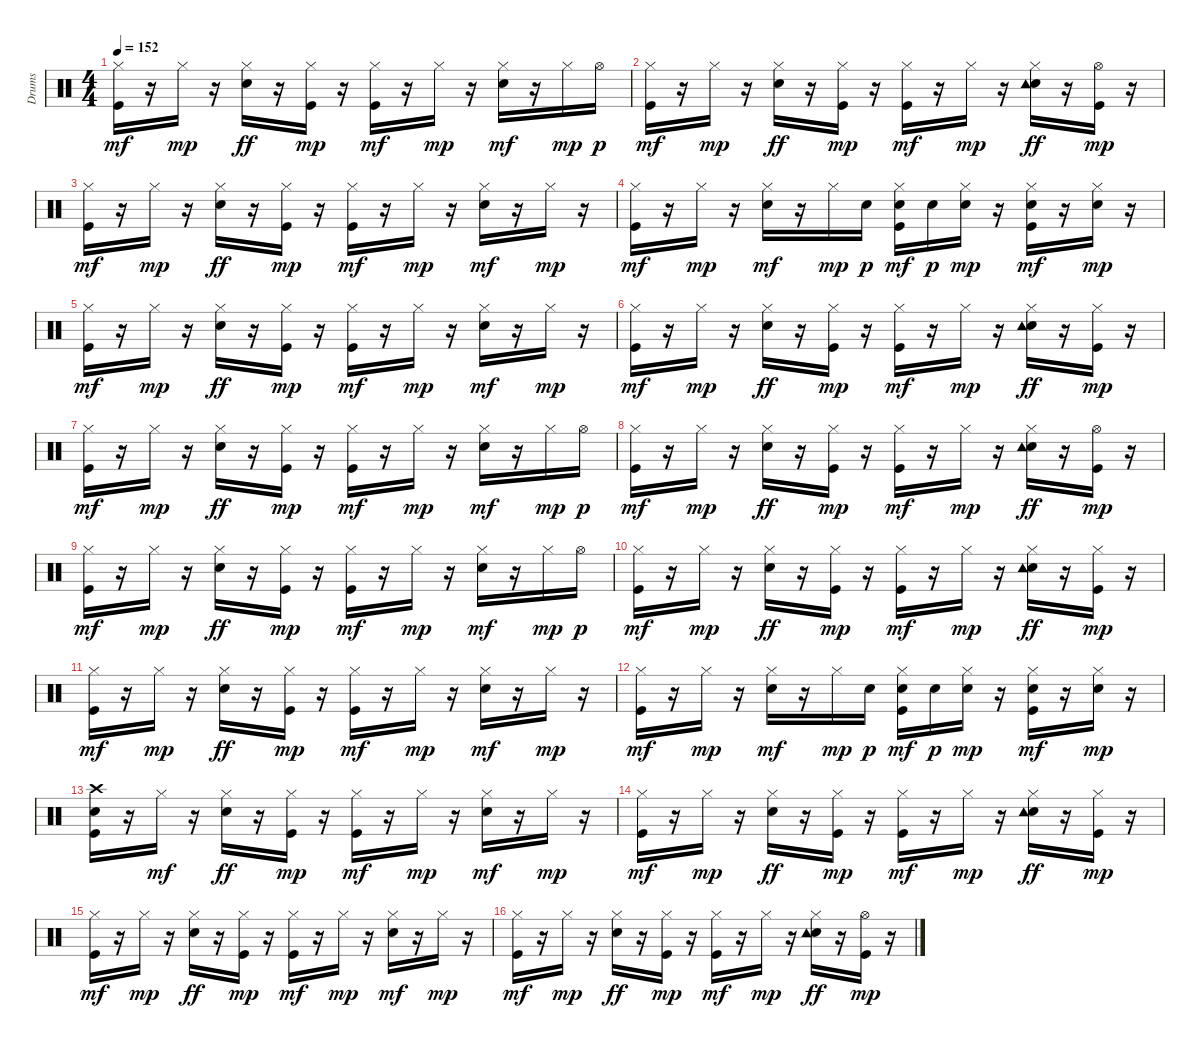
\track ("Drums   " "Drums   ") {instrument percussion}
\staff {score}
\articulation defaults
\ts (4 4)
\tempo 152
\clef neutral
\ks c
("Kick (hit)" "Hi-Hat (closed)").16{dy mf} r.16 "Hi-Hat (closed)".16{dy mp} r.16 ("Snare (hit) 2" "Hi-Hat (closed)").16{dy ff} r.16 ("Kick (hit)" "Hi-Hat (closed)").16{dy mp} r.16 ("Kick (hit)" "Hi-Hat (closed)").16{dy mf} r.16 "Hi-Hat (closed)".16{dy mp} r.16 ("Snare (hit) 2" "Hi-Hat (closed)").16{dy mf} r.16 "Hi-Hat (closed)".16{dy mp} "Hi-Hat (open)".16{dy p} |
("Kick (hit)" "Hi-Hat (closed)").16{dy mf} r.16 "Hi-Hat (closed)".16{dy mp} r.16 ("Snare (hit) 2" "Hi-Hat (closed)").16{dy ff} r.16 ("Kick (hit)" "Hi-Hat (closed)").16{dy mp} r.16 ("Kick (hit)" "Hi-Hat (closed)").16{dy mf} r.16 "Hi-Hat (closed)".16{dy mp} r.16 ("Snare (hit) 2" "Hi-Hat (closed)" "Tambourine (hit)").16{dy ff} r.16 ("Kick (hit)" "Hi-Hat (open)").16{dy mp} r.16 |
("Kick (hit)" "Hi-Hat (closed)").16{dy mf} r.16 "Hi-Hat (closed)".16{dy mp} r.16 ("Snare (hit) 2" "Hi-Hat (closed)").16{dy ff} r.16 ("Kick (hit)" "Hi-Hat (closed)").16{dy mp} r.16 ("Kick (hit)" "Hi-Hat (closed)").16{dy mf} r.16 "Hi-Hat (closed)".16{dy mp} r.16 ("Snare (hit) 2" "Hi-Hat (closed)").16{dy mf} r.16 "Hi-Hat (closed)".16{dy mp} r.16 |
("Kick (hit)" "Hi-Hat (closed)").16{dy mf} r.16 "Hi-Hat (closed)".16{dy mp} r.16 ("Snare (hit) 2" "Hi-Hat (closed)").16{dy mf} r.16 "Hi-Hat (closed)".16{dy mp} "Snare (hit) 2".16{dy p} ("Kick (hit)" "Snare (hit) 2" "Hi-Hat (closed)").16{dy mf} "Snare (hit) 2".16{dy p} ("Snare (hit) 2" "Hi-Hat (closed)").16{dy mp} r.16 ("Kick (hit)" "Snare (hit) 2" "Hi-Hat (closed)").16{dy mf} r.16 ("Snare (hit) 2" "Hi-Hat (closed)").16{dy mp} r.16 |
("Kick (hit)" "Hi-Hat (closed)").16{dy mf} r.16 "Hi-Hat (closed)".16{dy mp} r.16 ("Snare (hit) 2" "Hi-Hat (closed)").16{dy ff} r.16 ("Kick (hit)" "Hi-Hat (closed)").16{dy mp} r.16 ("Kick (hit)" "Hi-Hat (closed)").16{dy mf} r.16 "Hi-Hat (closed)".16{dy mp} r.16 ("Snare (hit) 2" "Hi-Hat (closed)").16{dy mf} r.16 "Hi-Hat (closed)".16{dy mp} r.16 |
("Kick (hit)" "Hi-Hat (closed)").16{dy mf} r.16 "Hi-Hat (closed)".16{dy mp} r.16 ("Snare (hit) 2" "Hi-Hat (closed)").16{dy ff} r.16 ("Kick (hit)" "Hi-Hat (closed)").16{dy mp} r.16 ("Kick (hit)" "Hi-Hat (closed)").16{dy mf} r.16 "Hi-Hat (closed)".16{dy mp} r.16 ("Snare (hit) 2" "Hi-Hat (closed)" "Tambourine (hit)").16{dy ff} r.16 ("Kick (hit)" "Hi-Hat (closed)").16{dy mp} r.16 |
("Kick (hit)" "Hi-Hat (closed)").16{dy mf} r.16 "Hi-Hat (closed)".16{dy mp} r.16 ("Snare (hit) 2" "Hi-Hat (closed)").16{dy ff} r.16 ("Kick (hit)" "Hi-Hat (closed)").16{dy mp} r.16 ("Kick (hit)" "Hi-Hat (closed)").16{dy mf} r.16 "Hi-Hat (closed)".16{dy mp} r.16 ("Snare (hit) 2" "Hi-Hat (closed)").16{dy mf} r.16 "Hi-Hat (closed)".16{dy mp} "Hi-Hat (open)".16{dy p} |
("Kick (hit)" "Hi-Hat (closed)").16{dy mf} r.16 "Hi-Hat (closed)".16{dy mp} r.16 ("Snare (hit) 2" "Hi-Hat (closed)").16{dy ff} r.16 ("Kick (hit)" "Hi-Hat (closed)").16{dy mp} r.16 ("Kick (hit)" "Hi-Hat (closed)").16{dy mf} r.16 "Hi-Hat (closed)".16{dy mp} r.16 ("Snare (hit) 2" "Hi-Hat (closed)" "Tambourine (hit)").16{dy ff} r.16 ("Kick (hit)" "Hi-Hat (open)").16{dy mp} r.16 |
("Kick (hit)" "Hi-Hat (closed)").16{dy mf} r.16 "Hi-Hat (closed)".16{dy mp} r.16 ("Snare (hit) 2" "Hi-Hat (closed)").16{dy ff} r.16 ("Kick (hit)" "Hi-Hat (closed)").16{dy mp} r.16 ("Kick (hit)" "Hi-Hat (closed)").16{dy mf} r.16 "Hi-Hat (closed)".16{dy mp} r.16 ("Snare (hit) 2" "Hi-Hat (closed)").16{dy mf} r.16 "Hi-Hat (closed)".16{dy mp} "Hi-Hat (open)".16{dy p} |
("Kick (hit)" "Hi-Hat (closed)").16{dy mf} r.16 "Hi-Hat (closed)".16{dy mp} r.16 ("Snare (hit) 2" "Hi-Hat (closed)").16{dy ff} r.16 ("Kick (hit)" "Hi-Hat (closed)").16{dy mp} r.16 ("Kick (hit)" "Hi-Hat (closed)").16{dy mf} r.16 "Hi-Hat (closed)".16{dy mp} r.16 ("Snare (hit) 2" "Hi-Hat (closed)" "Tambourine (hit)").16{dy ff} r.16 ("Kick (hit)" "Hi-Hat (closed)").16{dy mp} r.16 |
("Kick (hit)" "Hi-Hat (closed)").16{dy mf} r.16 "Hi-Hat (closed)".16{dy mp} r.16 ("Snare (hit) 2" "Hi-Hat (closed)").16{dy ff} r.16 ("Kick (hit)" "Hi-Hat (closed)").16{dy mp} r.16 ("Kick (hit)" "Hi-Hat (closed)").16{dy mf} r.16 "Hi-Hat (closed)".16{dy mp} r.16 ("Snare (hit) 2" "Hi-Hat (closed)").16{dy mf} r.16 "Hi-Hat (closed)".16{dy mp} r.16 |
("Kick (hit)" "Hi-Hat (closed)").16{dy mf} r.16 "Hi-Hat (closed)".16{dy mp} r.16 ("Snare (hit) 2" "Hi-Hat (closed)").16{dy mf} r.16 "Hi-Hat (closed)".16{dy mp} "Snare (hit) 2".16{dy p} ("Kick (hit)" "Snare (hit) 2" "Hi-Hat (closed)").16{dy mf} "Snare (hit) 2".16{dy p} ("Snare (hit) 2" "Hi-Hat (closed)").16{dy mp} r.16 ("Kick (hit)" "Snare (hit) 2" "Hi-Hat (closed)").16{dy mf} r.16 ("Snare (hit) 2" "Hi-Hat (closed)").16{dy mp} r.16 |
("Kick (hit)" "Snare (hit) 2" "Crash high (hit)").16 r.16 "Hi-Hat (closed)".16{dy mf} r.16 ("Snare (hit) 2" "Hi-Hat (closed)").16{dy ff} r.16 ("Kick (hit)" "Hi-Hat (closed)").16{dy mp} r.16 ("Kick (hit)" "Hi-Hat (closed)").16{dy mf} r.16 "Hi-Hat (closed)".16{dy mp} r.16 ("Snare (hit) 2" "Hi-Hat (closed)").16{dy mf} r.16 "Hi-Hat (closed)".16{dy mp} r.16 |
("Kick (hit)" "Hi-Hat (closed)").16{dy mf} r.16 "Hi-Hat (closed)".16{dy mp} r.16 ("Snare (hit) 2" "Hi-Hat (closed)").16{dy ff} r.16 ("Kick (hit)" "Hi-Hat (closed)").16{dy mp} r.16 ("Kick (hit)" "Hi-Hat (closed)").16{dy mf} r.16 "Hi-Hat (closed)".16{dy mp} r.16 ("Snare (hit) 2" "Hi-Hat (closed)" "Tambourine (hit)").16{dy ff} r.16 ("Kick (hit)" "Hi-Hat (closed)").16{dy mp} r.16 |
("Kick (hit)" "Hi-Hat (closed)").16{dy mf} r.16 "Hi-Hat (closed)".16{dy mp} r.16 ("Snare (hit) 2" "Hi-Hat (closed)").16{dy ff} r.16 ("Kick (hit)" "Hi-Hat (closed)").16{dy mp} r.16 ("Kick (hit)" "Hi-Hat (closed)").16{dy mf} r.16 "Hi-Hat (closed)".16{dy mp} r.16 ("Snare (hit) 2" "Hi-Hat (closed)").16{dy mf} r.16 "Hi-Hat (closed)".16{dy mp} r.16 |
("Kick (hit)" "Hi-Hat (closed)").16{dy mf} r.16 "Hi-Hat (closed)".16{dy mp} r.16 ("Snare (hit) 2" "Hi-Hat (closed)").16{dy ff} r.16 ("Kick (hit)" "Hi-Hat (closed)").16{dy mp} r.16 ("Kick (hit)" "Hi-Hat (closed)").16{dy mf} r.16 "Hi-Hat (closed)".16{dy mp} r.16 ("Snare (hit) 2" "Hi-Hat (closed)" "Tambourine (hit)").16{dy ff} r.16 ("Kick (hit)" "Hi-Hat (open)").16{dy mp} r.16
